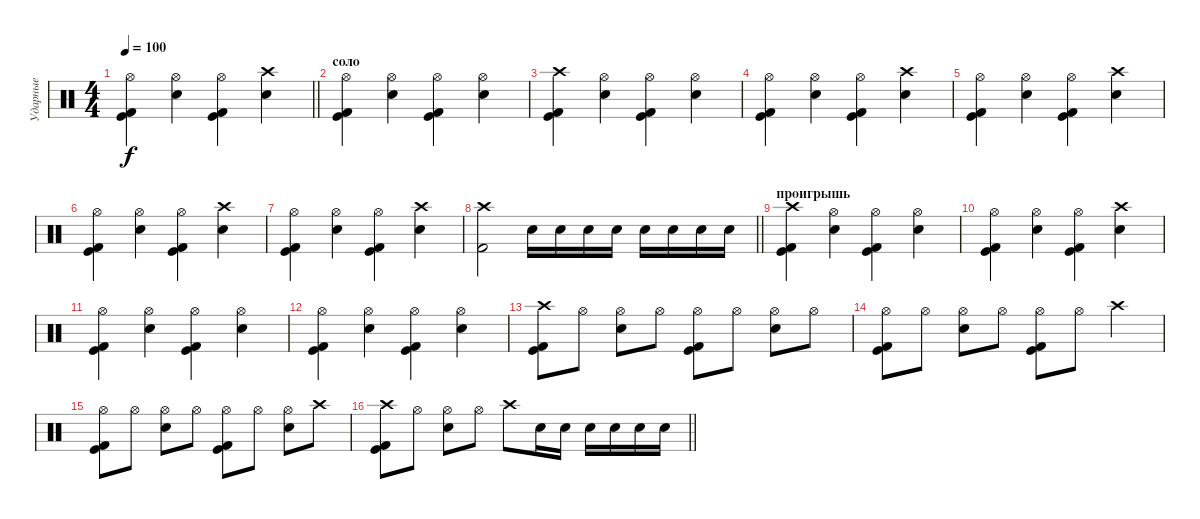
\track ("Ударные" "Ударные") {instrument percussion}
\staff {score}
\articulation defaults
\ts (4 4)
\tempo 100
\clef neutral
\barLineRight lightlight
\ks c
("Hi-Hat (open)" "Kick (hit) 2" "Kick (hit)").4{dy f} ("Hi-Hat (open)" "Electric Snare (hit)").4 ("Hi-Hat (open)" "Kick (hit) 2" "Kick (hit)").4 ("Crash high (hit)" "Electric Snare (hit)").4 |
\section ("" "соло")
("Hi-Hat (open)" "Kick (hit) 2" "Kick (hit)").4 ("Hi-Hat (open)" "Electric Snare (hit)").4 ("Hi-Hat (open)" "Kick (hit) 2" "Kick (hit)").4 ("Hi-Hat (open)" "Electric Snare (hit)").4 |
("Crash high (hit)" "Kick (hit) 2" "Kick (hit)").4 ("Hi-Hat (open)" "Electric Snare (hit)").4 ("Hi-Hat (open)" "Kick (hit) 2" "Kick (hit)").4 ("Hi-Hat (open)" "Electric Snare (hit)").4 |
("Hi-Hat (open)" "Kick (hit) 2" "Kick (hit)").4 ("Hi-Hat (open)" "Electric Snare (hit)").4 ("Hi-Hat (open)" "Kick (hit) 2" "Kick (hit)").4 ("Crash high (hit)" "Electric Snare (hit)").4 |
("Hi-Hat (open)" "Kick (hit) 2" "Kick (hit)").4 ("Hi-Hat (open)" "Electric Snare (hit)").4 ("Hi-Hat (open)" "Kick (hit) 2" "Kick (hit)").4 ("Crash high (hit)" "Electric Snare (hit)").4 |
("Hi-Hat (open)" "Kick (hit) 2" "Kick (hit)").4 ("Hi-Hat (open)" "Electric Snare (hit)").4 ("Hi-Hat (open)" "Kick (hit) 2" "Kick (hit)").4 ("Crash high (hit)" "Electric Snare (hit)").4 |
("Hi-Hat (open)" "Kick (hit) 2" "Kick (hit)").4 ("Hi-Hat (open)" "Electric Snare (hit)").4 ("Hi-Hat (open)" "Kick (hit) 2" "Kick (hit)").4 ("Crash high (hit)" "Electric Snare (hit)").4 |
\barLineRight lightlight
("Crash high (hit)" "Kick (hit) 2").2 "Snare (hit) 2".16 "Snare (hit) 2".16 "Snare (hit) 2".16 "Snare (hit) 2".16 "Snare (hit) 2".16 "Snare (hit) 2".16 "Snare (hit) 2".16 "Snare (hit) 2".16 |
\section ("" "проигрышь")
("Crash high (hit)" "Kick (hit) 2" "Kick (hit)").4 ("Hi-Hat (open)" "Electric Snare (hit)").4 ("Hi-Hat (open)" "Kick (hit) 2" "Kick (hit)").4 ("Hi-Hat (open)" "Electric Snare (hit)").4 |
("Hi-Hat (open)" "Kick (hit) 2" "Kick (hit)").4 ("Hi-Hat (open)" "Electric Snare (hit)").4 ("Hi-Hat (open)" "Kick (hit) 2" "Kick (hit)").4 ("Crash high (hit)" "Electric Snare (hit)").4 |
("Hi-Hat (open)" "Kick (hit) 2" "Kick (hit)").4 ("Hi-Hat (open)" "Electric Snare (hit)").4 ("Hi-Hat (open)" "Kick (hit) 2" "Kick (hit)").4 ("Hi-Hat (open)" "Electric Snare (hit)").4 |
("Hi-Hat (open)" "Kick (hit) 2" "Kick (hit)").4 ("Hi-Hat (open)" "Electric Snare (hit)").4 ("Hi-Hat (open)" "Kick (hit) 2" "Kick (hit)").4 ("Hi-Hat (open)" "Electric Snare (hit)").4 |
("Crash high (hit)" "Kick (hit) 2" "Kick (hit)").8 "Hi-Hat (open)".8 ("Hi-Hat (open)" "Electric Snare (hit)").8 "Hi-Hat (open)".8 ("Hi-Hat (open)" "Kick (hit) 2" "Kick (hit)").8 "Hi-Hat (open)".8 ("Hi-Hat (open)" "Electric Snare (hit)").8 "Hi-Hat (open)".8 |
("Hi-Hat (open)" "Kick (hit) 2" "Kick (hit)").8 "Hi-Hat (open)".8 ("Hi-Hat (open)" "Electric Snare (hit)").8 "Hi-Hat (open)".8 ("Hi-Hat (open)" "Kick (hit) 2" "Kick (hit)").8 "Hi-Hat (open)".8 "Crash high (hit)".4 |
("Hi-Hat (open)" "Kick (hit) 2" "Kick (hit)").8 "Hi-Hat (open)".8 ("Hi-Hat (open)" "Electric Snare (hit)").8 "Hi-Hat (open)".8 ("Hi-Hat (open)" "Kick (hit) 2" "Kick (hit)").8 "Hi-Hat (open)".8 ("Hi-Hat (open)" "Electric Snare (hit)").8 "Crash high (hit)".8 |
\barLineRight lightlight
("Crash high (hit)" "Kick (hit) 2" "Kick (hit)").8 "Hi-Hat (open)".8 ("Hi-Hat (open)" "Electric Snare (hit)").8 "Hi-Hat (open)".8 "Crash high (hit)".8 "Snare (hit) 2".16 "Snare (hit) 2".16 "Snare (hit) 2".16 "Snare (hit) 2".16 "Snare (hit) 2".16 "Snare (hit) 2".16
